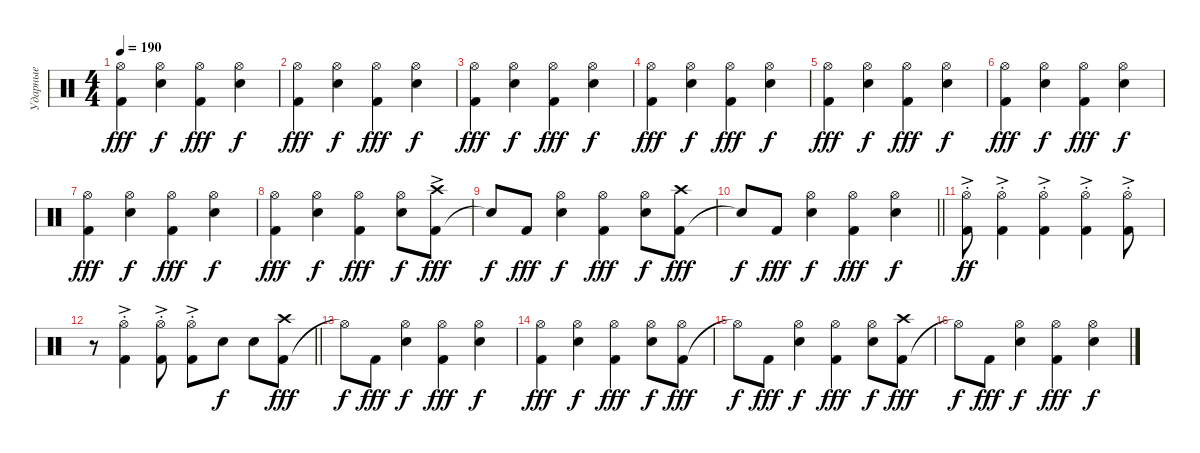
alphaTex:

\track ("Ударные" "Ударные") {instrument percussion}
\staff {score}
\articulation defaults
\ts (4 4)
\tempo 190
\clef neutral
\ks c
("Kick (hit) 2" "Hi-Hat (open)").4{dy fff} ("Snare (hit) 2" "Hi-Hat (open)").4{dy f} ("Kick (hit) 2" "Hi-Hat (open)").4{dy fff} ("Snare (hit) 2" "Hi-Hat (open)").4{dy f} |
("Kick (hit) 2" "Hi-Hat (open)").4{dy fff} ("Snare (hit) 2" "Hi-Hat (open)").4{dy f} ("Kick (hit) 2" "Hi-Hat (open)").4{dy fff} ("Snare (hit) 2" "Hi-Hat (open)").4{dy f} |
("Kick (hit) 2" "Hi-Hat (open)").4{dy fff} ("Snare (hit) 2" "Hi-Hat (open)").4{dy f} ("Kick (hit) 2" "Hi-Hat (open)").4{dy fff} ("Snare (hit) 2" "Hi-Hat (open)").4{dy f} |
("Kick (hit) 2" "Hi-Hat (open)").4{dy fff} ("Snare (hit) 2" "Hi-Hat (open)").4{dy f} ("Kick (hit) 2" "Hi-Hat (open)").4{dy fff} ("Snare (hit) 2" "Hi-Hat (open)").4{dy f} |
("Kick (hit) 2" "Hi-Hat (open)").4{dy fff} ("Snare (hit) 2" "Hi-Hat (open)").4{dy f} ("Kick (hit) 2" "Hi-Hat (open)").4{dy fff} ("Snare (hit) 2" "Hi-Hat (open)").4{dy f} |
("Kick (hit) 2" "Hi-Hat (open)").4{dy fff} ("Snare (hit) 2" "Hi-Hat (open)").4{dy f} ("Kick (hit) 2" "Hi-Hat (open)").4{dy fff} ("Snare (hit) 2" "Hi-Hat (open)").4{dy f} |
("Kick (hit) 2" "Hi-Hat (open)").4{dy fff} ("Snare (hit) 2" "Hi-Hat (open)").4{dy f} ("Kick (hit) 2" "Hi-Hat (open)").4{dy fff} ("Snare (hit) 2" "Hi-Hat (open)").4{dy f} |
("Kick (hit) 2" "Hi-Hat (open)").4{dy fff} ("Snare (hit) 2" "Hi-Hat (open)").4{dy f} ("Kick (hit) 2" "Hi-Hat (open)").4{dy fff} ("Snare (hit) 2" "Hi-Hat (open)").8{dy f} ("Kick (hit) 2" "Crash high (hit)"{ac}).8{dy fff} |
"Snare (hit)"{t}.8{dy f} "Kick (hit) 2".8{dy fff} ("Snare (hit) 2" "Hi-Hat (open)").4{dy f} ("Kick (hit) 2" "Hi-Hat (open)").4{dy fff} ("Snare (hit) 2" "Hi-Hat (open)").8{dy f} ("Kick (hit) 2" "Crash high (hit)").8{dy fff} |
\barLineRight lightlight "Snare (hit)"{t}.8{dy f} "Kick (hit) 2".8{dy fff}
("Snare (hit) 2" "Hi-Hat (open)").4{dy f} ("Kick (hit) 2" "Hi-Hat (open)").4{dy fff} ("Snare (hit) 2" "Hi-Hat (open)").4{dy f} |
("Kick (hit) 2"{st} "Hi-Hat (open)"{ac st}).8{dy ff} ("Kick (hit) 2"{st} "Hi-Hat (open)"{ac st}).4 ("Kick (hit) 2"{st} "Hi-Hat (open)"{ac st}).4 ("Kick (hit) 2"{st} "Hi-Hat (open)"{ac st}).4 ("Kick (hit) 2"{st} "Hi-Hat (open)"{ac st}).8 |
\barLineRight lightlight
r.8 ("Kick (hit) 2"{st} "Hi-Hat (open)"{ac st}).4 ("Kick (hit) 2"{st} "Hi-Hat (open)"{ac st}).8 ("Kick (hit) 2"{st} "Hi-Hat (open)"{ac st}).8 "Snare (hit) 2".8{dy f} "Snare (hit) 2".8 ("Kick (hit) 2" "Crash high (hit)").8{dy fff} |
"Hi-Hat (open)"{t}.8{dy f} "Kick (hit) 2".8{dy fff} ("Snare (hit) 2" "Hi-Hat (open)").4{dy f} ("Kick (hit) 2" "Hi-Hat (open)").4{dy fff} ("Snare (hit) 2" "Hi-Hat (open)").4{dy f} |
("Kick (hit) 2" "Hi-Hat (open)").4{dy fff} ("Snare (hit) 2" "Hi-Hat (open)").4{dy f} ("Kick (hit) 2" "Hi-Hat (open)").4{dy fff} ("Snare (hit) 2" "Hi-Hat (open)").8{dy f} ("Kick (hit) 2" "Hi-Hat (open)").8{dy fff} |
"Hi-Hat (open)"{t}.8{dy f} "Kick (hit) 2".8{dy fff} ("Snare (hit) 2" "Hi-Hat (open)").4{dy f} ("Kick (hit) 2" "Hi-Hat (open)").4{dy fff} ("Snare (hit) 2" "Hi-Hat (open)").8{dy f} ("Kick (hit) 2" "Crash high (hit)").8{dy fff} |
"Hi-Hat (open)"{t}.8{dy f} "Kick (hit) 2".8{dy fff} ("Snare (hit) 2" "Hi-Hat (open)").4{dy f} ("Kick (hit) 2" "Hi-Hat (open)").4{dy fff} ("Snare (hit) 2" "Hi-Hat (open)").4{dy f}
